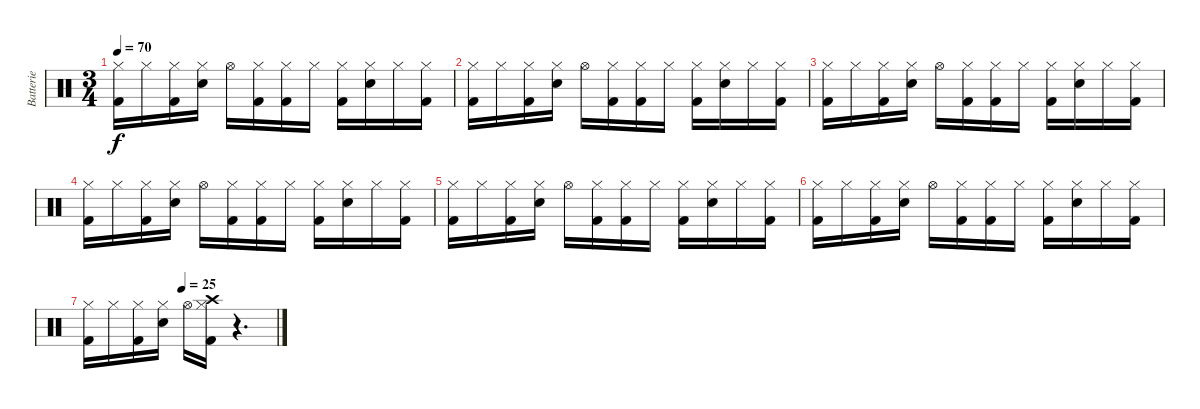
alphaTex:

\track ("Batterie" "Batterie") {instrument percussion}
\staff {score}
\articulation defaults
\ts (3 4)
\tempo 70
\clef neutral
\ks c
("Kick (hit) 2" "Hi-Hat (closed)").16{dy f} "Hi-Hat (closed)".16 ("Kick (hit) 2" "Hi-Hat (closed)").16 ("Electric Snare (hit)" "Hi-Hat (closed)").16 "Hi-Hat (open)".16 ("Kick (hit) 2" "Hi-Hat (closed)").16 ("Kick (hit) 2" "Hi-Hat (closed)").16 "Hi-Hat (closed)".16 ("Kick (hit) 2" "Hi-Hat (closed)").16 ("Electric Snare (hit)" "Hi-Hat (closed)").16 "Hi-Hat (closed)".16 ("Kick (hit) 2" "Hi-Hat (closed)").16 |
("Kick (hit) 2" "Hi-Hat (closed)").16 "Hi-Hat (closed)".16 ("Kick (hit) 2" "Hi-Hat (closed)").16 ("Electric Snare (hit)" "Hi-Hat (closed)").16 "Hi-Hat (open)".16 ("Kick (hit) 2" "Hi-Hat (closed)").16 ("Kick (hit) 2" "Hi-Hat (closed)").16 "Hi-Hat (closed)".16 ("Kick (hit) 2" "Hi-Hat (closed)").16 ("Electric Snare (hit)" "Hi-Hat (closed)").16 "Hi-Hat (closed)".16 ("Kick (hit) 2" "Hi-Hat (closed)").16 |
("Kick (hit) 2" "Hi-Hat (closed)").16 "Hi-Hat (closed)".16 ("Kick (hit) 2" "Hi-Hat (closed)").16 ("Electric Snare (hit)" "Hi-Hat (closed)").16 "Hi-Hat (open)".16 ("Kick (hit) 2" "Hi-Hat (closed)").16 ("Kick (hit) 2" "Hi-Hat (closed)").16 "Hi-Hat (closed)".16 ("Kick (hit) 2" "Hi-Hat (closed)").16 ("Electric Snare (hit)" "Hi-Hat (closed)").16 "Hi-Hat (closed)".16 ("Kick (hit) 2" "Hi-Hat (closed)").16 |
("Kick (hit) 2" "Hi-Hat (closed)").16 "Hi-Hat (closed)".16 ("Kick (hit) 2" "Hi-Hat (closed)").16 ("Electric Snare (hit)" "Hi-Hat (closed)").16 "Hi-Hat (open)".16 ("Kick (hit) 2" "Hi-Hat (closed)").16 ("Kick (hit) 2" "Hi-Hat (closed)").16 "Hi-Hat (closed)".16 ("Kick (hit) 2" "Hi-Hat (closed)").16 ("Electric Snare (hit)" "Hi-Hat (closed)").16 "Hi-Hat (closed)".16 ("Kick (hit) 2" "Hi-Hat (closed)").16 |
("Kick (hit) 2" "Hi-Hat (closed)").16 "Hi-Hat (closed)".16 ("Kick (hit) 2" "Hi-Hat (closed)").16 ("Electric Snare (hit)" "Hi-Hat (closed)").16 "Hi-Hat (open)".16 ("Kick (hit) 2" "Hi-Hat (closed)").16 ("Kick (hit) 2" "Hi-Hat (closed)").16 "Hi-Hat (closed)".16 ("Kick (hit) 2" "Hi-Hat (closed)").16 ("Electric Snare (hit)" "Hi-Hat (closed)").16 "Hi-Hat (closed)".16 ("Kick (hit) 2" "Hi-Hat (closed)").16 |
("Kick (hit) 2" "Hi-Hat (closed)").16 "Hi-Hat (closed)".16 ("Kick (hit) 2" "Hi-Hat (closed)").16 ("Electric Snare (hit)" "Hi-Hat (closed)").16 "Hi-Hat (open)".16 ("Kick (hit) 2" "Hi-Hat (closed)").16 ("Kick (hit) 2" "Hi-Hat (closed)").16 "Hi-Hat (closed)".16 ("Kick (hit) 2" "Hi-Hat (closed)").16 ("Electric Snare (hit)" "Hi-Hat (closed)").16 "Hi-Hat (closed)".16 ("Kick (hit) 2" "Hi-Hat (closed)").16 |
\tempo (25 0.5)
("Kick (hit) 2" "Hi-Hat (closed)").16 "Hi-Hat (closed)".16 ("Kick (hit) 2" "Hi-Hat (closed)").16 ("Electric Snare (hit)" "Hi-Hat (closed)").16 "Hi-Hat (open)".16 ("Crash high (hit)" "Kick (hit) 2" "Hi-Hat (closed)").16 r.4{d}
